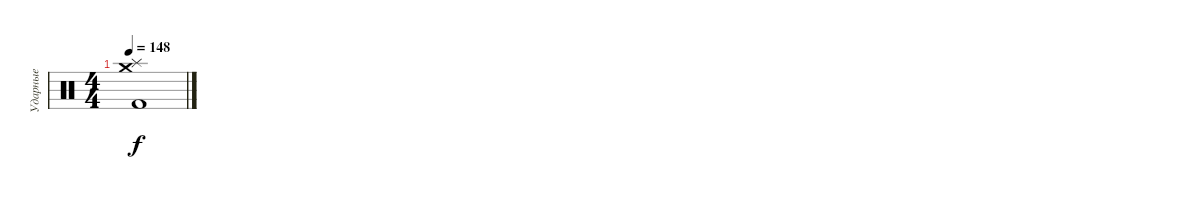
\track ("Ударные" "Ударные") {instrument percussion}
\staff {score}
\articulation defaults
\ts (4 4)
\tempo 148
\clef neutral
\ks c
("Splash (hit)" "Crash medium (hit)" "Kick (hit) 2").1{dy f}
